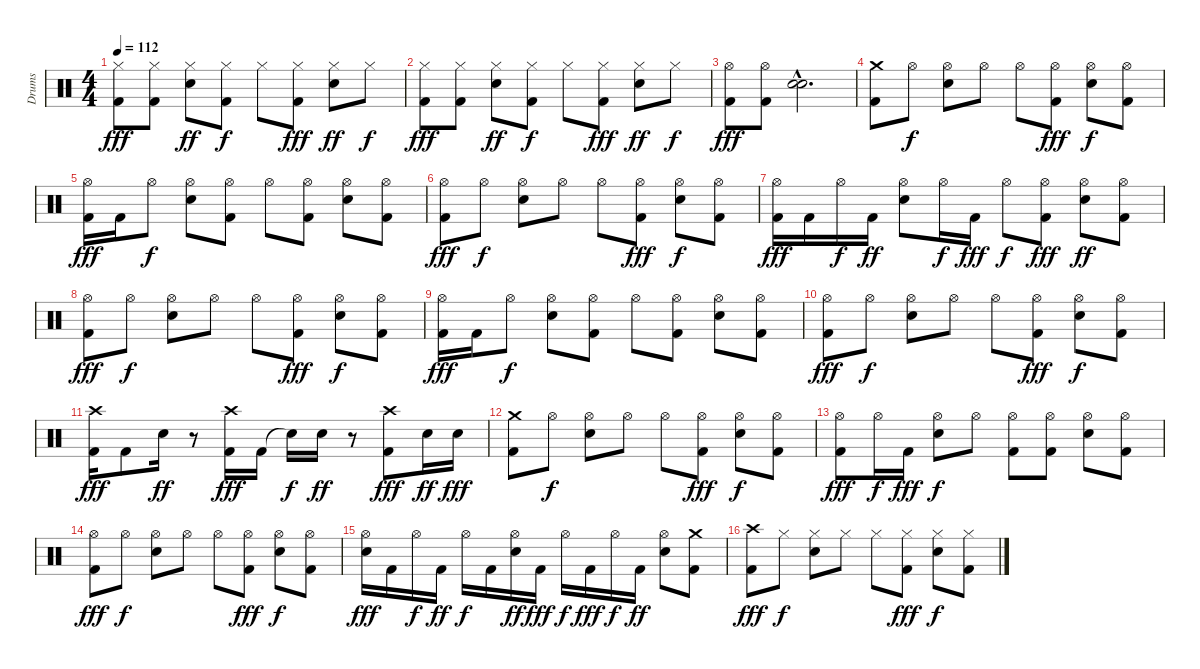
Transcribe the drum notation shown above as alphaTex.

\track ("Drums" "Drums") {instrument percussion}
\staff {score}
\articulation defaults
\ts (4 4)
\tempo 112
\clef neutral
\ks c
("Hi-Hat (closed)" "Kick (hit) 2").8{dy fff} ("Hi-Hat (closed)" "Kick (hit) 2").8 ("Hi-Hat (closed)" "Snare (hit) 2").8{dy ff} ("Hi-Hat (closed)" "Kick (hit) 2").8{dy f} "Hi-Hat (closed)".8 ("Hi-Hat (closed)" "Kick (hit) 2").8{dy fff} ("Hi-Hat (closed)" "Snare (hit) 2").8{dy ff} "Hi-Hat (closed)".8{dy f} |
("Hi-Hat (closed)" "Kick (hit) 2").8{dy fff} ("Hi-Hat (closed)" "Kick (hit) 2").8 ("Hi-Hat (closed)" "Snare (hit) 2").8{dy ff} ("Hi-Hat (closed)" "Kick (hit) 2").8{dy f} "Hi-Hat (closed)".8 ("Hi-Hat (closed)" "Kick (hit) 2").8{dy fff} ("Hi-Hat (closed)" "Snare (hit) 2").8{dy ff} "Hi-Hat (closed)".8{dy f} |
("Hi-Hat (open)" "Kick (hit) 2").8{dy fff} ("Hi-Hat (open)" "Kick (hit) 2").8 ("Snare (hit) 2"{hac} "Snare (hit) 2").2{d} |
("Crash medium (hit)" "Kick (hit) 2").8 "Hi-Hat (open)".8{dy f} ("Hi-Hat (open)" "Snare (hit) 2").8 "Hi-Hat (open)".8 "Hi-Hat (open)".8 ("Hi-Hat (open)" "Kick (hit) 2").8{dy fff} ("Hi-Hat (open)" "Snare (hit) 2").8{dy f} ("Hi-Hat (open)" "Kick (hit) 2").8 |
("Hi-Hat (open)" "Kick (hit) 2").16{dy fff} "Kick (hit) 2".16 "Hi-Hat (open)".8{dy f} ("Hi-Hat (open)" "Snare (hit) 2").8 ("Hi-Hat (open)" "Kick (hit) 2").8 "Hi-Hat (open)".8 ("Hi-Hat (open)" "Kick (hit) 2").8 ("Hi-Hat (open)" "Snare (hit) 2").8 ("Hi-Hat (open)" "Kick (hit) 2").8 |
("Hi-Hat (open)" "Kick (hit) 2").8{dy fff} "Hi-Hat (open)".8{dy f} ("Hi-Hat (open)" "Snare (hit) 2").8 "Hi-Hat (open)".8 "Hi-Hat (open)".8 ("Hi-Hat (open)" "Kick (hit) 2").8{dy fff} ("Hi-Hat (open)" "Snare (hit) 2").8{dy f} ("Hi-Hat (open)" "Kick (hit) 2").8 |
("Hi-Hat (open)" "Kick (hit) 2").16{dy fff} "Kick (hit) 2".16 "Hi-Hat (open)".16{dy f} "Kick (hit) 2".16{dy ff} ("Hi-Hat (open)" "Snare (hit) 2").8 "Hi-Hat (open)".16{dy f} "Kick (hit) 2".16{dy fff} "Hi-Hat (open)".8{dy f} ("Kick (hit) 2" "Hi-Hat (open)").8{dy fff} ("Snare (hit) 2" "Hi-Hat (open)").8{dy ff} ("Kick (hit) 2" "Hi-Hat (open)").8 |
("Hi-Hat (open)" "Kick (hit) 2").8{dy fff} "Hi-Hat (open)".8{dy f} ("Hi-Hat (open)" "Snare (hit) 2").8 "Hi-Hat (open)".8 "Hi-Hat (open)".8 ("Hi-Hat (open)" "Kick (hit) 2").8{dy fff} ("Hi-Hat (open)" "Snare (hit) 2").8{dy f} ("Hi-Hat (open)" "Kick (hit) 2").8 |
("Hi-Hat (open)" "Kick (hit) 2").16{dy fff} "Kick (hit) 2".16 "Hi-Hat (open)".8{dy f} ("Hi-Hat (open)" "Snare (hit) 2").8 ("Hi-Hat (open)" "Kick (hit) 2").8 "Hi-Hat (open)".8 ("Hi-Hat (open)" "Kick (hit) 2").8 ("Hi-Hat (open)" "Snare (hit) 2").8 ("Hi-Hat (open)" "Kick (hit) 2").8 |
("Hi-Hat (open)" "Kick (hit) 2").8{dy fff} "Hi-Hat (open)".8{dy f} ("Hi-Hat (open)" "Snare (hit) 2").8 "Hi-Hat (open)".8 "Hi-Hat (open)".8 ("Hi-Hat (open)" "Kick (hit) 2").8{dy fff} ("Hi-Hat (open)" "Snare (hit) 2").8{dy f} ("Hi-Hat (open)" "Kick (hit) 2").8 |
("Crash high (hit)" "Kick (hit) 2").16{dy fff} "Kick (hit) 2".8 "Snare (hit) 2".16{dy ff} r.8 ("Crash high (hit)" "Kick (hit) 2").16{dy fff} "Kick (hit) 2".16 "Snare (hit)"{t}.16{dy f} "Snare (hit) 2".16{dy ff} r.8 ("Crash high (hit)" "Kick (hit) 2").8{dy fff} "Snare (hit) 2".16{dy ff} "Snare (hit) 2".16{dy fff} |
("Crash medium (hit)" "Kick (hit) 2").8 "Hi-Hat (open)".8{dy f} ("Hi-Hat (open)" "Snare (hit) 2").8 "Hi-Hat (open)".8 "Hi-Hat (open)".8 ("Hi-Hat (open)" "Kick (hit) 2").8{dy fff} ("Hi-Hat (open)" "Snare (hit) 2").8{dy f} ("Hi-Hat (open)" "Kick (hit) 2").8 |
("Hi-Hat (open)" "Kick (hit) 2").8{dy fff} "Hi-Hat (open)".16{dy f} "Kick (hit) 2".16{dy fff} ("Hi-Hat (open)" "Snare (hit) 2").8{dy f} "Hi-Hat (open)".8 ("Kick (hit) 2" "Hi-Hat (open)").8 ("Hi-Hat (open)" "Kick (hit) 2").8 ("Hi-Hat (open)" "Snare (hit) 2").8 ("Hi-Hat (open)" "Kick (hit) 2").8 |
("Hi-Hat (open)" "Kick (hit) 2").8{dy fff} "Hi-Hat (open)".8{dy f} ("Hi-Hat (open)" "Snare (hit) 2").8 "Hi-Hat (open)".8 "Hi-Hat (open)".8 ("Hi-Hat (open)" "Kick (hit) 2").8{dy fff} ("Hi-Hat (open)" "Snare (hit) 2").8{dy f} ("Hi-Hat (open)" "Kick (hit) 2").8 |
("Hi-Hat (open)" "Snare (hit) 2").16{dy fff} "Kick (hit) 2".16 "Hi-Hat (open)".16{dy f} "Kick (hit) 2".16{dy ff} "Hi-Hat (open)".16{dy f} "Kick (hit) 2".16 ("Hi-Hat (open)" "Snare (hit) 2").16{dy ff} "Kick (hit) 2".16{dy fff} "Hi-Hat (open)".16{dy f} "Kick (hit) 2".16{dy fff} "Hi-Hat (open)".16{dy f} "Kick (hit) 2".16{dy ff} ("Hi-Hat (open)" "Snare (hit) 2").8 ("Crash medium (hit)" "Kick (hit) 2").8 |
("Kick (hit) 2" "Crash high (hit)").8{dy fff} "Hi-Hat (closed)".8{dy f} ("Hi-Hat (closed)" "Snare (hit) 2").8 "Hi-Hat (closed)".8 "Hi-Hat (closed)".8 ("Hi-Hat (closed)" "Kick (hit) 2").8{dy fff} ("Hi-Hat (closed)" "Snare (hit) 2").8{dy f} ("Hi-Hat (closed)" "Kick (hit) 2").8
